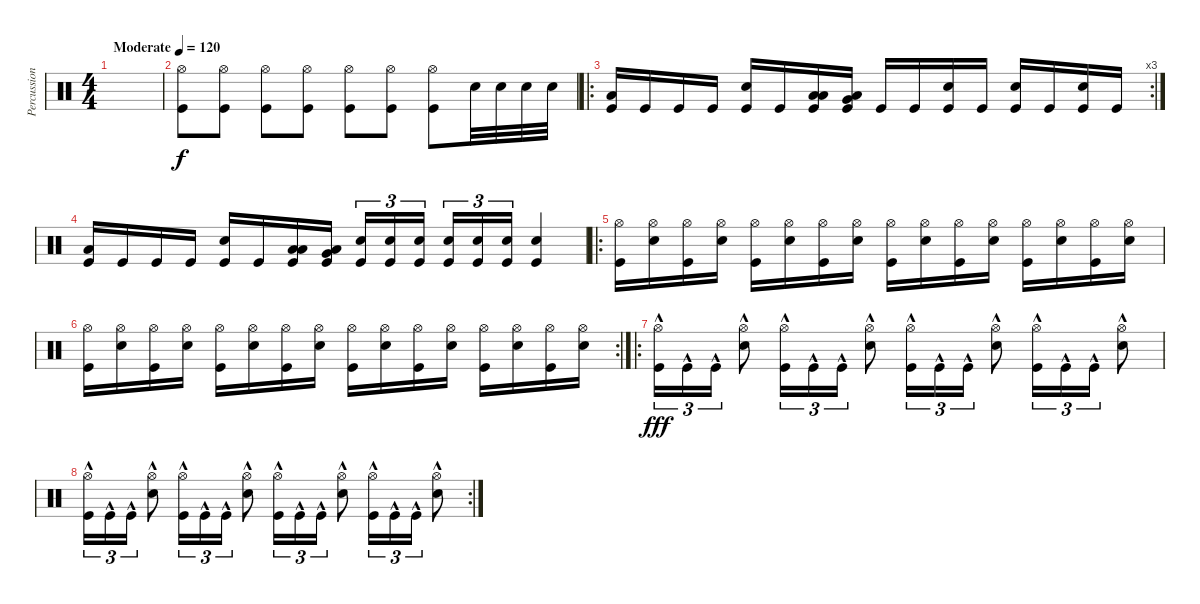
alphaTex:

\track ("Percussion" "Percussion") {instrument percussion}
\staff {score}
\articulation defaults
\ts (4 4)
\tempo (120 "Moderate")
\clef neutral
\ks c
|
("Hi-Hat (open)" "Kick (hit)").8 ("Hi-Hat (open)" "Kick (hit)").8 ("Hi-Hat (open)" "Kick (hit)").8 ("Hi-Hat (open)" "Kick (hit)").8 ("Hi-Hat (open)" "Kick (hit)").8 ("Hi-Hat (open)" "Kick (hit)").8 ("Hi-Hat (open)" "Kick (hit)").8 "Snare (hit) 2".32 "Snare (hit) 2".32 "Snare (hit) 2".32 "Snare (hit) 2".32 |
\ro
\rc 3
("Low Floor Tom (hit)" "Kick (hit)").16 "Kick (hit)".16 "Kick (hit)".16 "Kick (hit)".16 ("Snare (hit) 2" "Kick (hit)").16 "Kick (hit)".16 ("Low Tom (hit)" "Low Floor Tom (hit)" "Kick (hit)").16 ("Low Tom (hit)" "Very Low Tom (hit)" "Kick (hit)").16 "Kick (hit)".16 "Kick (hit)".16 ("Snare (hit) 2" "Kick (hit)").16 "Kick (hit)".16 ("Snare (hit) 2" "Kick (hit)").16 "Kick (hit)".16 ("Snare (hit) 2" "Kick (hit)").16 "Kick (hit)".16 |
("Low Floor Tom (hit)" "Kick (hit)").16 "Kick (hit)".16 "Kick (hit)".16 "Kick (hit)".16 ("Snare (hit) 2" "Kick (hit)").16 "Kick (hit)".16 ("Low Tom (hit)" "Low Floor Tom (hit)" "Kick (hit)").16 ("Low Tom (hit)" "Very Low Tom (hit)" "Kick (hit)").16 ("Snare (hit) 2" "Kick (hit)").16{tu (3 2)} ("Snare (hit) 2" "Kick (hit)").16{tu (3 2)} ("Snare (hit) 2" "Kick (hit)").16{tu (3 2) beam splitsecondary} ("Snare (hit) 2" "Kick (hit)").16{tu (3 2)} ("Snare (hit) 2" "Kick (hit)").16{tu (3 2)} ("Snare (hit) 2" "Kick (hit)").16{tu (3 2)} ("Snare (hit) 2" "Kick (hit)").4 |
\ro
("Hi-Hat (open)" "Kick (hit)").16 ("Hi-Hat (open)" "Snare (hit) 2").16 ("Hi-Hat (open)" "Kick (hit)").16 ("Hi-Hat (open)" "Snare (hit) 2").16 ("Hi-Hat (open)" "Kick (hit)").16 ("Hi-Hat (open)" "Snare (hit) 2").16 ("Hi-Hat (open)" "Kick (hit)").16 ("Hi-Hat (open)" "Snare (hit) 2").16 ("Hi-Hat (open)" "Kick (hit)").16 ("Hi-Hat (open)" "Snare (hit) 2").16 ("Hi-Hat (open)" "Kick (hit)").16 ("Hi-Hat (open)" "Snare (hit) 2").16 ("Hi-Hat (open)" "Kick (hit)").16 ("Hi-Hat (open)" "Snare (hit) 2").16 ("Hi-Hat (open)" "Kick (hit)").16 ("Hi-Hat (open)" "Snare (hit) 2").16 |
\rc 2
("Hi-Hat (open)" "Kick (hit)").16 ("Hi-Hat (open)" "Snare (hit) 2").16 ("Hi-Hat (open)" "Kick (hit)").16 ("Hi-Hat (open)" "Snare (hit) 2").16 ("Hi-Hat (open)" "Kick (hit)").16 ("Hi-Hat (open)" "Snare (hit) 2").16 ("Hi-Hat (open)" "Kick (hit)").16 ("Hi-Hat (open)" "Snare (hit) 2").16 ("Hi-Hat (open)" "Kick (hit)").16 ("Hi-Hat (open)" "Snare (hit) 2").16 ("Hi-Hat (open)" "Kick (hit)").16 ("Hi-Hat (open)" "Snare (hit) 2").16 ("Hi-Hat (open)" "Kick (hit)").16 ("Hi-Hat (open)" "Snare (hit) 2").16 ("Hi-Hat (open)" "Kick (hit)").16 ("Hi-Hat (open)" "Snare (hit) 2").16 |
\ro
("Hi-Hat (open)" "Kick (hit)"{hac}).16{tu (3 2) dy fff} "Kick (hit)"{hac}.16{tu (3 2)} "Kick (hit)"{hac}.16{tu (3 2)} ("Hi-Hat (open)" "Snare (hit) 2"{hac}).8 ("Hi-Hat (open)" "Kick (hit)"{hac}).16{tu (3 2)} "Kick (hit)"{hac}.16{tu (3 2)} "Kick (hit)"{hac}.16{tu (3 2)} ("Hi-Hat (open)" "Snare (hit) 2"{hac}).8 ("Hi-Hat (open)" "Kick (hit)"{hac}).16{tu (3 2)} "Kick (hit)"{hac}.16{tu (3 2)} "Kick (hit)"{hac}.16{tu (3 2)} ("Hi-Hat (open)" "Snare (hit) 2"{hac}).8 ("Hi-Hat (open)" "Kick (hit)"{hac}).16{tu (3 2)} "Kick (hit)"{hac}.16{tu (3 2)} "Kick (hit)"{hac}.16{tu (3 2)} ("Hi-Hat (open)" "Snare (hit) 2"{hac}).8 |
\rc 2
("Hi-Hat (open)" "Kick (hit)"{hac}).16{tu (3 2)} "Kick (hit)"{hac}.16{tu (3 2)} "Kick (hit)"{hac}.16{tu (3 2)} ("Hi-Hat (open)" "Snare (hit) 2"{hac}).8 ("Hi-Hat (open)" "Kick (hit)"{hac}).16{tu (3 2)} "Kick (hit)"{hac}.16{tu (3 2)} "Kick (hit)"{hac}.16{tu (3 2)} ("Hi-Hat (open)" "Snare (hit) 2"{hac}).8 ("Hi-Hat (open)" "Kick (hit)"{hac}).16{tu (3 2)} "Kick (hit)"{hac}.16{tu (3 2)} "Kick (hit)"{hac}.16{tu (3 2)} ("Hi-Hat (open)" "Snare (hit) 2"{hac}).8 ("Hi-Hat (open)" "Kick (hit)"{hac}).16{tu (3 2)} "Kick (hit)"{hac}.16{tu (3 2)} "Kick (hit)"{hac}.16{tu (3 2)} ("Hi-Hat (open)" "Snare (hit) 2"{hac}).8
